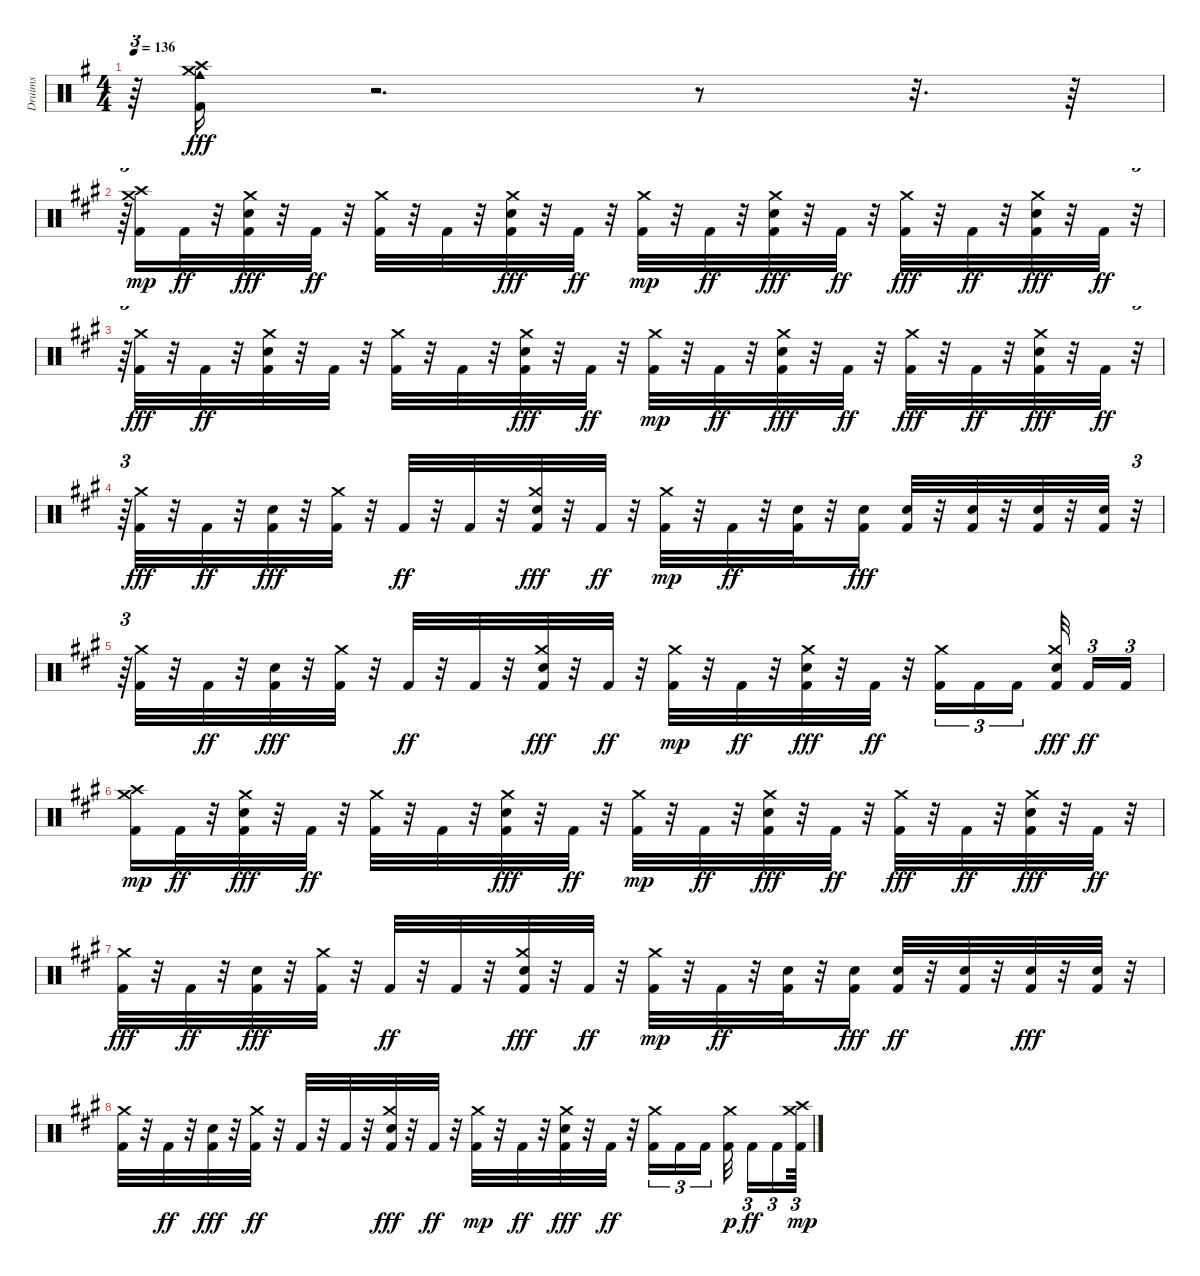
\track ("Druims" "Druims") {instrument percussion}
\staff {score}
\articulation defaults
\ts (4 4)
\tempo 136
\clef neutral
\ks eminor
r.64{tu (3 2) dy ff} ("Kick (hit) 2" "Crash high (hit)" "Crash medium (hit)" "Cowbell medium (hit)").16{dy fff} r.2{d} r.8 r.32{d} r.64 |
\ks f#minor
r.64{tu (3 2)} ("Kick (hit) 2" "Crash high (hit)" "Crash medium (hit)").16{dy mp} "Kick (hit) 2".32{dy ff} r.32 ("Kick (hit) 2" "Crash medium (hit)" "Snare (hit) 2").32{dy fff} r.32 "Kick (hit) 2".32{dy ff} r.32 ("Crash medium (hit)" "Kick (hit) 2").32 r.32 "Kick (hit) 2".32 r.32 ("Kick (hit) 2" "Crash medium (hit)" "Snare (hit) 2").32{dy fff} r.32 "Kick (hit) 2".32{dy ff} r.32 ("Kick (hit) 2" "Crash medium (hit)").32{dy mp} r.32 "Kick (hit) 2".32{dy ff} r.32 ("Crash medium (hit)" "Kick (hit) 2" "Snare (hit) 2").32{dy fff} r.32 "Kick (hit) 2".32{dy ff} r.32 ("Kick (hit) 2" "Crash medium (hit)").32{dy fff} r.32 "Kick (hit) 2".32{dy ff} r.32 ("Kick (hit) 2" "Crash medium (hit)" "Snare (hit) 2").32{dy fff} r.32 "Kick (hit) 2".32{dy ff} r.32{tu (3 2)} |
r.64{tu (3 2)} ("Kick (hit) 2" "Crash medium (hit)").32{dy fff} r.32 "Kick (hit) 2".32{dy ff} r.32 ("Kick (hit) 2" "Snare (hit) 2" "Crash medium (hit)").32 r.32 "Kick (hit) 2".32 r.32 ("Crash medium (hit)" "Kick (hit) 2").32 r.32 "Kick (hit) 2".32 r.32 ("Kick (hit) 2" "Crash medium (hit)" "Snare (hit) 2").32{dy fff} r.32 "Kick (hit) 2".32{dy ff} r.32 ("Kick (hit) 2" "Crash medium (hit)").32{dy mp} r.32 "Kick (hit) 2".32{dy ff} r.32 ("Kick (hit) 2" "Snare (hit) 2" "Crash medium (hit)").32{dy fff} r.32 "Kick (hit) 2".32{dy ff} r.32 ("Kick (hit) 2" "Crash medium (hit)").32{dy fff} r.32 "Kick (hit) 2".32{dy ff} r.32 ("Crash medium (hit)" "Kick (hit) 2" "Snare (hit) 2").32{dy fff} r.32 "Kick (hit) 2".32{dy ff} r.32{tu (3 2)} |
r.64{tu (3 2)} ("Kick (hit) 2" "Crash medium (hit)").32{dy fff} r.32 "Kick (hit) 2".32{dy ff} r.32 ("Kick (hit) 2" "Snare (hit) 2").32{dy fff} r.32 ("Kick (hit) 2" "Crash medium (hit)").32 r.32 "Kick (hit) 2".32{dy ff} r.32 "Kick (hit) 2".32 r.32 ("Kick (hit) 2" "Snare (hit) 2" "Crash medium (hit)").32{dy fff} r.32 "Kick (hit) 2".32{dy ff} r.32 ("Kick (hit) 2" "Crash medium (hit)").32{dy mp} r.32 "Kick (hit) 2".32{dy ff} r.32 ("Snare (hit) 2" "Kick (hit) 2").32 r.32 ("Kick (hit) 2" "Snare (hit) 2").16{dy fff} ("Kick (hit) 2" "Snare (hit) 2").32 r.32 ("Kick (hit) 2" "Snare (hit) 2").32 r.32 ("Kick (hit) 2" "Snare (hit) 2").32 r.32 ("Kick (hit) 2" "Snare (hit) 2").32 r.32{tu (3 2)} |
r.64{tu (3 2)} ("Kick (hit) 2" "Crash medium (hit)").32 r.32 "Kick (hit) 2".32{dy ff} r.32 ("Kick (hit) 2" "Snare (hit) 2").32{dy fff} r.32 ("Kick (hit) 2" "Crash medium (hit)").32 r.32 "Kick (hit) 2".32{dy ff} r.32 "Kick (hit) 2".32 r.32 ("Kick (hit) 2" "Crash medium (hit)" "Snare (hit) 2").32{dy fff} r.32 "Kick (hit) 2".32{dy ff} r.32 ("Kick (hit) 2" "Crash medium (hit)").32{dy mp} r.32 "Kick (hit) 2".32{dy ff} r.32 ("Kick (hit) 2" "Snare (hit) 2" "Crash medium (hit)").32{dy fff} r.32 "Kick (hit) 2".32{dy ff} r.32 ("Crash medium (hit)" "Kick (hit) 2").16{tu (3 2)} "Kick (hit) 2".16{tu (3 2)} "Kick (hit) 2".16{tu (3 2) beam splitsecondary} ("Kick (hit) 2" "Crash medium (hit)" "Snare (hit) 2").32{dy fff beam splitsecondary} "Kick (hit) 2".16{tu (3 2) dy ff} "Kick (hit) 2".16{tu (3 2)} |
("Kick (hit) 2" "Crash high (hit)" "Crash medium (hit)").16{dy mp} "Kick (hit) 2".32{dy ff} r.32 ("Kick (hit) 2" "Crash medium (hit)" "Snare (hit) 2").32{dy fff} r.32 "Kick (hit) 2".32{dy ff} r.32 ("Crash medium (hit)" "Kick (hit) 2").32 r.32 "Kick (hit) 2".32 r.32 ("Kick (hit) 2" "Crash medium (hit)" "Snare (hit) 2").32{dy fff} r.32 "Kick (hit) 2".32{dy ff} r.32 ("Kick (hit) 2" "Crash medium (hit)").32{dy mp} r.32 "Kick (hit) 2".32{dy ff} r.32 ("Kick (hit) 2" "Crash medium (hit)" "Snare (hit) 2").32{dy fff} r.32 "Kick (hit) 2".32{dy ff} r.32 ("Kick (hit) 2" "Crash medium (hit)").32{dy fff} r.32 "Kick (hit) 2".32{dy ff} r.32 ("Kick (hit) 2" "Crash medium (hit)" "Snare (hit) 2").32{dy fff} r.32 "Kick (hit) 2".32{dy ff} r.32 |
("Kick (hit) 2" "Crash medium (hit)").32{dy fff} r.32 "Kick (hit) 2".32{dy ff} r.32 ("Kick (hit) 2" "Snare (hit) 2").32{dy fff} r.32 ("Kick (hit) 2" "Crash medium (hit)").32 r.32 "Kick (hit) 2".32{dy ff} r.32 "Kick (hit) 2".32 r.32 ("Kick (hit) 2" "Snare (hit) 2" "Crash medium (hit)").32{dy fff} r.32 "Kick (hit) 2".32{dy ff} r.32 ("Kick (hit) 2" "Crash medium (hit)").32{dy mp} r.32 "Kick (hit) 2".32{dy ff} r.32 ("Snare (hit) 2" "Kick (hit) 2").32 r.32 ("Kick (hit) 2" "Snare (hit) 2").16{dy fff} ("Snare (hit) 2" "Kick (hit) 2").32{dy ff} r.32 ("Snare (hit) 2" "Kick (hit) 2").32 r.32 ("Kick (hit) 2" "Snare (hit) 2").32{dy fff} r.32 ("Kick (hit) 2" "Snare (hit) 2").32 r.32 |
("Kick (hit) 2" "Crash medium (hit)").32 r.32 "Kick (hit) 2".32{dy ff} r.32 ("Kick (hit) 2" "Snare (hit) 2").32{dy fff} r.32 ("Crash medium (hit)" "Kick (hit) 2").32{dy ff} r.32 "Kick (hit) 2".32 r.32 "Kick (hit) 2".32 r.32 ("Kick (hit) 2" "Crash medium (hit)" "Snare (hit) 2").32{dy fff} r.32 "Kick (hit) 2".32{dy ff} r.32 ("Kick (hit) 2" "Crash medium (hit)").32{dy mp} r.32 "Kick (hit) 2".32{dy ff} r.32 ("Kick (hit) 2" "Snare (hit) 2" "Crash medium (hit)").32{dy fff} r.32 "Kick (hit) 2".32{dy ff} r.32 ("Crash medium (hit)" "Kick (hit) 2").16{tu (3 2)} "Kick (hit) 2".16{tu (3 2)} "Kick (hit) 2".16{tu (3 2) beam splitsecondary} ("Kick (hit) 2" "Crash medium (hit)").32{dy p beam splitsecondary} "Kick (hit) 2".16{tu (3 2) dy ff} "Kick (hit) 2".16{tu (3 2)} ("Crash high (hit)" "Kick (hit) 2" "Crash medium (hit)").64{tu (3 2) dy mp}
